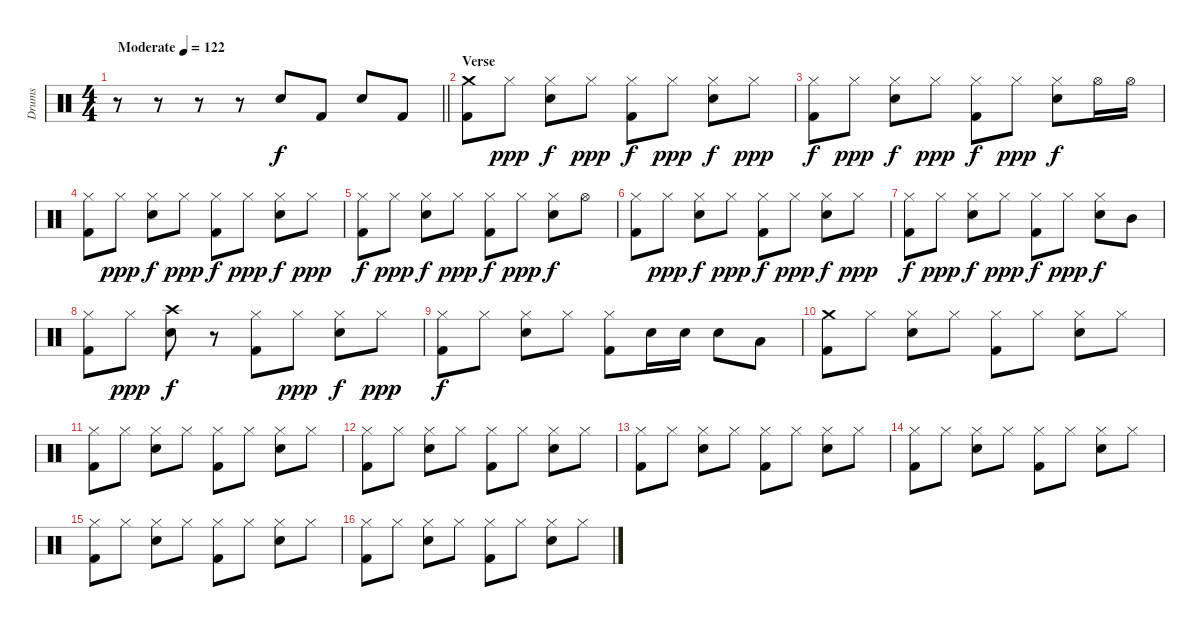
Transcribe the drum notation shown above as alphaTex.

\track ("Drums" "Drums") {instrument percussion}
\staff {score}
\articulation defaults
\ts (4 4)
\tempo (122 "Moderate")
\clef neutral
\barLineRight lightlight
\ks c
r.8{dy f} r.8 r.8 r.8 "Electric Snare (hit)".8 "Kick (hit) 2".8 "Electric Snare (hit)".8 "Kick (hit) 2".8 |
\section ("" "Verse")
("Crash medium (hit)" "Kick (hit) 2").8 "Hi-Hat (closed)".8{dy ppp} ("Hi-Hat (closed)" "Electric Snare (hit)").8{dy f} "Hi-Hat (closed)".8{dy ppp} ("Hi-Hat (closed)" "Kick (hit) 2").8{dy f} "Hi-Hat (closed)".8{dy ppp} ("Hi-Hat (closed)" "Electric Snare (hit)").8{dy f} "Hi-Hat (closed)".8{dy ppp} |
("Hi-Hat (closed)" "Kick (hit) 2").8{dy f} "Hi-Hat (closed)".8{dy ppp} ("Hi-Hat (closed)" "Electric Snare (hit)").8{dy f} "Hi-Hat (closed)".8{dy ppp} ("Hi-Hat (closed)" "Kick (hit) 2").8{dy f} "Hi-Hat (closed)".8{dy ppp} ("Hi-Hat (closed)" "Electric Snare (hit)").8{dy f} "Hi-Hat (open)".16 "Hi-Hat (open)".16 |
("Hi-Hat (closed)" "Kick (hit) 2").8 "Hi-Hat (closed)".8{dy ppp} ("Hi-Hat (closed)" "Electric Snare (hit)").8{dy f} "Hi-Hat (closed)".8{dy ppp} ("Hi-Hat (closed)" "Kick (hit) 2").8{dy f} "Hi-Hat (closed)".8{dy ppp} ("Hi-Hat (closed)" "Electric Snare (hit)").8{dy f} "Hi-Hat (closed)".8{dy ppp} |
("Hi-Hat (closed)" "Kick (hit) 2").8{dy f} "Hi-Hat (closed)".8{dy ppp} ("Hi-Hat (closed)" "Electric Snare (hit)").8{dy f} "Hi-Hat (closed)".8{dy ppp} ("Hi-Hat (closed)" "Kick (hit) 2").8{dy f} "Hi-Hat (closed)".8{dy ppp} ("Hi-Hat (closed)" "Electric Snare (hit)").8{dy f} "Hi-Hat (open)".8 |
("Hi-Hat (closed)" "Kick (hit) 2").8 "Hi-Hat (closed)".8{dy ppp} ("Hi-Hat (closed)" "Electric Snare (hit)").8{dy f} "Hi-Hat (closed)".8{dy ppp} ("Hi-Hat (closed)" "Kick (hit) 2").8{dy f} "Hi-Hat (closed)".8{dy ppp} ("Hi-Hat (closed)" "Electric Snare (hit)").8{dy f} "Hi-Hat (closed)".8{dy ppp} |
("Hi-Hat (closed)" "Kick (hit) 2").8{dy f} "Hi-Hat (closed)".8{dy ppp} ("Hi-Hat (closed)" "Electric Snare (hit)").8{dy f} "Hi-Hat (closed)".8{dy ppp} ("Hi-Hat (closed)" "Kick (hit) 2").8{dy f} "Hi-Hat (closed)".8{dy ppp} ("Hi-Hat (closed)" "Electric Snare (hit)").8{dy f} "Mid Tom (hit)".8 |
("Hi-Hat (closed)" "Kick (hit) 2").8 "Hi-Hat (closed)".8{dy ppp} ("Crash high (hit)" "Electric Snare (hit)").8{dy f} r.8 ("Hi-Hat (closed)" "Kick (hit) 2").8 "Hi-Hat (closed)".8{dy ppp} ("Hi-Hat (closed)" "Electric Snare (hit)").8{dy f} "Hi-Hat (closed)".8{dy ppp} |
("Hi-Hat (closed)" "Kick (hit) 2").8{dy f} "Hi-Hat (closed)".8 ("Hi-Hat (closed)" "Electric Snare (hit)").8 "Hi-Hat (closed)".8 ("Hi-Hat (closed)" "Kick (hit) 2").8 "Electric Snare (hit)".16 "Electric Snare (hit)".16 "Electric Snare (hit)".8 "Low Tom (hit)".8 |
("Crash medium (hit)" "Kick (hit) 2").8 "Hi-Hat (closed)".8 ("Hi-Hat (closed)" "Electric Snare (hit)").8 "Hi-Hat (closed)".8 ("Hi-Hat (closed)" "Kick (hit) 2").8 "Hi-Hat (closed)".8 ("Hi-Hat (closed)" "Electric Snare (hit)").8 "Hi-Hat (closed)".8 |
("Hi-Hat (closed)" "Kick (hit) 2").8 "Hi-Hat (closed)".8 ("Hi-Hat (closed)" "Electric Snare (hit)").8 "Hi-Hat (closed)".8 ("Hi-Hat (closed)" "Kick (hit) 2").8 "Hi-Hat (closed)".8 ("Hi-Hat (closed)" "Electric Snare (hit)").8 "Hi-Hat (closed)".8 |
("Hi-Hat (closed)" "Kick (hit) 2").8 "Hi-Hat (closed)".8 ("Hi-Hat (closed)" "Electric Snare (hit)").8 "Hi-Hat (closed)".8 ("Hi-Hat (closed)" "Kick (hit) 2").8 "Hi-Hat (closed)".8 ("Hi-Hat (closed)" "Electric Snare (hit)").8 "Hi-Hat (closed)".8 |
("Hi-Hat (closed)" "Kick (hit) 2").8 "Hi-Hat (closed)".8 ("Hi-Hat (closed)" "Electric Snare (hit)").8 "Hi-Hat (closed)".8 ("Hi-Hat (closed)" "Kick (hit) 2").8 "Hi-Hat (closed)".8 ("Hi-Hat (closed)" "Electric Snare (hit)").8 "Hi-Hat (closed)".8 |
("Hi-Hat (closed)" "Kick (hit) 2").8 "Hi-Hat (closed)".8 ("Hi-Hat (closed)" "Electric Snare (hit)").8 "Hi-Hat (closed)".8 ("Hi-Hat (closed)" "Kick (hit) 2").8 "Hi-Hat (closed)".8 ("Hi-Hat (closed)" "Electric Snare (hit)").8 "Hi-Hat (closed)".8 |
("Hi-Hat (closed)" "Kick (hit) 2").8 "Hi-Hat (closed)".8 ("Hi-Hat (closed)" "Electric Snare (hit)").8 "Hi-Hat (closed)".8 ("Hi-Hat (closed)" "Kick (hit) 2").8 "Hi-Hat (closed)".8 ("Hi-Hat (closed)" "Electric Snare (hit)").8 "Hi-Hat (closed)".8 |
("Hi-Hat (closed)" "Kick (hit) 2").8 "Hi-Hat (closed)".8 ("Hi-Hat (closed)" "Electric Snare (hit)").8 "Hi-Hat (closed)".8 ("Hi-Hat (closed)" "Kick (hit) 2").8 "Hi-Hat (closed)".8 ("Hi-Hat (closed)" "Electric Snare (hit)").8 "Hi-Hat (closed)".8
